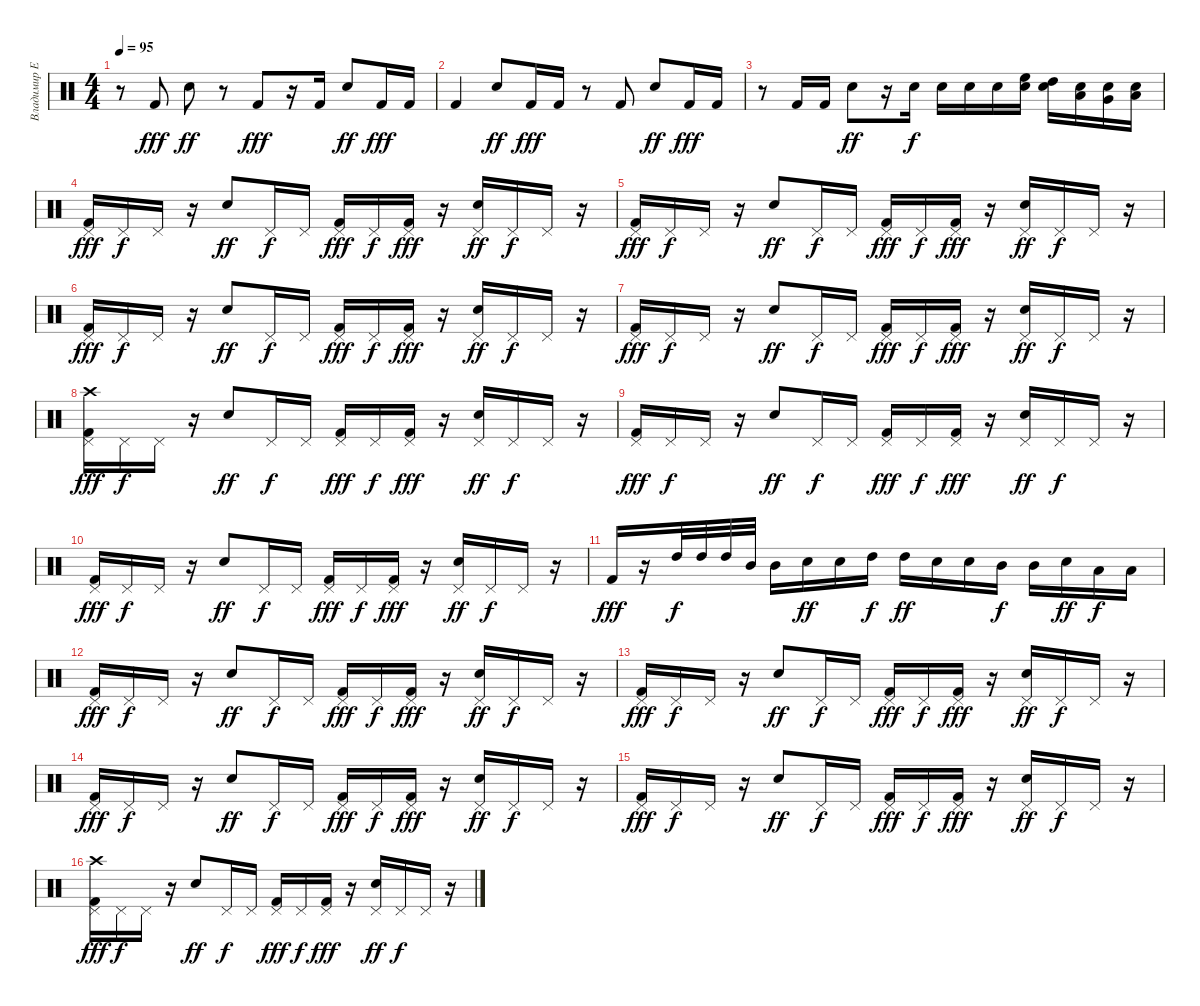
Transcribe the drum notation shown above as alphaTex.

\track ("Владимир Ермаков" "Владимир Е") {instrument percussion}
\staff {score}
\articulation defaults
\ts (4 4)
\tempo 95
\clef neutral
\ks c
r.8{dy ff} "Kick (hit) 2".8{dy fff} "Electric Snare (hit)".8{dy ff} r.8 "Kick (hit) 2".8{dy fff} r.16 "Kick (hit) 2".16 "Electric Snare (hit)".8{dy ff} "Kick (hit) 2".16{dy fff} "Kick (hit) 2".16 |
"Kick (hit) 2".4 "Electric Snare (hit)".8{dy ff} "Kick (hit) 2".16{dy fff} "Kick (hit) 2".16 r.8 "Kick (hit) 2".8 "Electric Snare (hit)".8{dy ff} "Kick (hit) 2".16{dy fff} "Kick (hit) 2".16 |
r.8 "Kick (hit) 2".16 "Kick (hit) 2".16 "Electric Snare (hit)".8{dy ff} r.16 "Electric Snare (hit)".16{dy f} "Electric Snare (hit)".16 "Electric Snare (hit)".16 "Electric Snare (hit)".16 ("High Floor Tom (hit)" "Electric Snare (hit)").16 ("High Tom (hit)" "Electric Snare (hit)").16 ("Low Tom (hit)" "Electric Snare (hit)").16 ("Very Low Tom (hit)" "Electric Snare (hit)").16 ("Low Floor Tom (hit)" "Electric Snare (hit)").16 |
("Kick (hit) 2" "Pedal Hi-Hat (hit)").16{dy fff} "Pedal Hi-Hat (hit)".16{dy f} "Pedal Hi-Hat (hit)".16 r.16 "Electric Snare (hit)".8{dy ff} "Pedal Hi-Hat (hit)".16{dy f} "Pedal Hi-Hat (hit)".16 ("Kick (hit) 2" "Pedal Hi-Hat (hit)").16{dy fff} "Pedal Hi-Hat (hit)".16{dy f} ("Kick (hit) 2" "Pedal Hi-Hat (hit)").16{dy fff} r.16 ("Electric Snare (hit)" "Pedal Hi-Hat (hit)").16{dy ff} "Pedal Hi-Hat (hit)".16{dy f} "Pedal Hi-Hat (hit)".16 r.16 |
("Kick (hit) 2" "Pedal Hi-Hat (hit)").16{dy fff} "Pedal Hi-Hat (hit)".16{dy f} "Pedal Hi-Hat (hit)".16 r.16 "Electric Snare (hit)".8{dy ff} "Pedal Hi-Hat (hit)".16{dy f} "Pedal Hi-Hat (hit)".16 ("Kick (hit) 2" "Pedal Hi-Hat (hit)").16{dy fff} "Pedal Hi-Hat (hit)".16{dy f} ("Kick (hit) 2" "Pedal Hi-Hat (hit)").16{dy fff} r.16 ("Electric Snare (hit)" "Pedal Hi-Hat (hit)").16{dy ff} "Pedal Hi-Hat (hit)".16{dy f} "Pedal Hi-Hat (hit)".16 r.16 |
("Kick (hit) 2" "Pedal Hi-Hat (hit)").16{dy fff} "Pedal Hi-Hat (hit)".16{dy f} "Pedal Hi-Hat (hit)".16 r.16 "Electric Snare (hit)".8{dy ff} "Pedal Hi-Hat (hit)".16{dy f} "Pedal Hi-Hat (hit)".16 ("Kick (hit) 2" "Pedal Hi-Hat (hit)").16{dy fff} "Pedal Hi-Hat (hit)".16{dy f} ("Kick (hit) 2" "Pedal Hi-Hat (hit)").16{dy fff} r.16 ("Electric Snare (hit)" "Pedal Hi-Hat (hit)").16{dy ff} "Pedal Hi-Hat (hit)".16{dy f} "Pedal Hi-Hat (hit)".16 r.16 |
("Kick (hit) 2" "Pedal Hi-Hat (hit)").16{dy fff} "Pedal Hi-Hat (hit)".16{dy f} "Pedal Hi-Hat (hit)".16 r.16 "Electric Snare (hit)".8{dy ff} "Pedal Hi-Hat (hit)".16{dy f} "Pedal Hi-Hat (hit)".16 ("Kick (hit) 2" "Pedal Hi-Hat (hit)").16{dy fff} "Pedal Hi-Hat (hit)".16{dy f} ("Kick (hit) 2" "Pedal Hi-Hat (hit)").16{dy fff} r.16 ("Electric Snare (hit)" "Pedal Hi-Hat (hit)").16{dy ff} "Pedal Hi-Hat (hit)".16{dy f} "Pedal Hi-Hat (hit)".16 r.16 |
("Crash high (hit)" "Kick (hit) 2" "Pedal Hi-Hat (hit)").16{dy fff} "Pedal Hi-Hat (hit)".16{dy f} "Pedal Hi-Hat (hit)".16 r.16 "Electric Snare (hit)".8{dy ff} "Pedal Hi-Hat (hit)".16{dy f} "Pedal Hi-Hat (hit)".16 ("Kick (hit) 2" "Pedal Hi-Hat (hit)").16{dy fff} "Pedal Hi-Hat (hit)".16{dy f} ("Kick (hit) 2" "Pedal Hi-Hat (hit)").16{dy fff} r.16 ("Electric Snare (hit)" "Pedal Hi-Hat (hit)").16{dy ff} "Pedal Hi-Hat (hit)".16{dy f} "Pedal Hi-Hat (hit)".16 r.16 |
("Kick (hit) 2" "Pedal Hi-Hat (hit)").16{dy fff} "Pedal Hi-Hat (hit)".16{dy f} "Pedal Hi-Hat (hit)".16 r.16 "Electric Snare (hit)".8{dy ff} "Pedal Hi-Hat (hit)".16{dy f} "Pedal Hi-Hat (hit)".16 ("Kick (hit) 2" "Pedal Hi-Hat (hit)").16{dy fff} "Pedal Hi-Hat (hit)".16{dy f} ("Kick (hit) 2" "Pedal Hi-Hat (hit)").16{dy fff} r.16 ("Electric Snare (hit)" "Pedal Hi-Hat (hit)").16{dy ff} "Pedal Hi-Hat (hit)".16{dy f} "Pedal Hi-Hat (hit)".16 r.16 |
("Kick (hit) 2" "Pedal Hi-Hat (hit)").16{dy fff} "Pedal Hi-Hat (hit)".16{dy f} "Pedal Hi-Hat (hit)".16 r.16 "Electric Snare (hit)".8{dy ff} "Pedal Hi-Hat (hit)".16{dy f} "Pedal Hi-Hat (hit)".16 ("Kick (hit) 2" "Pedal Hi-Hat (hit)").16{dy fff} "Pedal Hi-Hat (hit)".16{dy f} ("Kick (hit) 2" "Pedal Hi-Hat (hit)").16{dy fff} r.16 ("Electric Snare (hit)" "Pedal Hi-Hat (hit)").16{dy ff} "Pedal Hi-Hat (hit)".16{dy f} "Pedal Hi-Hat (hit)".16 r.16 |
"Kick (hit) 2".16{dy fff} r.16 "High Tom (hit)".32{dy f} "High Tom (hit)".32 "High Tom (hit)".32 "Mid Tom (hit)".32 "Mid Tom (hit)".16 "Electric Snare (hit)".16{dy ff} "Electric Snare (hit)".16 "High Tom (hit)".16{dy f} "High Tom (hit)".16{dy ff} "Electric Snare (hit)".16 "Electric Snare (hit)".16 "Mid Tom (hit)".16{dy f} "Mid Tom (hit)".16 "Electric Snare (hit)".16{dy ff} "Low Tom (hit)".16{dy f} "Low Tom (hit)".16 |
("Kick (hit) 2" "Pedal Hi-Hat (hit)").16{dy fff} "Pedal Hi-Hat (hit)".16{dy f} "Pedal Hi-Hat (hit)".16 r.16 "Electric Snare (hit)".8{dy ff} "Pedal Hi-Hat (hit)".16{dy f} "Pedal Hi-Hat (hit)".16 ("Kick (hit) 2" "Pedal Hi-Hat (hit)").16{dy fff} "Pedal Hi-Hat (hit)".16{dy f} ("Kick (hit) 2" "Pedal Hi-Hat (hit)").16{dy fff} r.16 ("Electric Snare (hit)" "Pedal Hi-Hat (hit)").16{dy ff} "Pedal Hi-Hat (hit)".16{dy f} "Pedal Hi-Hat (hit)".16 r.16 |
("Kick (hit) 2" "Pedal Hi-Hat (hit)").16{dy fff} "Pedal Hi-Hat (hit)".16{dy f} "Pedal Hi-Hat (hit)".16 r.16 "Electric Snare (hit)".8{dy ff} "Pedal Hi-Hat (hit)".16{dy f} "Pedal Hi-Hat (hit)".16 ("Kick (hit) 2" "Pedal Hi-Hat (hit)").16{dy fff} "Pedal Hi-Hat (hit)".16{dy f} ("Kick (hit) 2" "Pedal Hi-Hat (hit)").16{dy fff} r.16 ("Electric Snare (hit)" "Pedal Hi-Hat (hit)").16{dy ff} "Pedal Hi-Hat (hit)".16{dy f} "Pedal Hi-Hat (hit)".16 r.16 |
("Kick (hit) 2" "Pedal Hi-Hat (hit)").16{dy fff} "Pedal Hi-Hat (hit)".16{dy f} "Pedal Hi-Hat (hit)".16 r.16 "Electric Snare (hit)".8{dy ff} "Pedal Hi-Hat (hit)".16{dy f} "Pedal Hi-Hat (hit)".16 ("Kick (hit) 2" "Pedal Hi-Hat (hit)").16{dy fff} "Pedal Hi-Hat (hit)".16{dy f} ("Kick (hit) 2" "Pedal Hi-Hat (hit)").16{dy fff} r.16 ("Electric Snare (hit)" "Pedal Hi-Hat (hit)").16{dy ff} "Pedal Hi-Hat (hit)".16{dy f} "Pedal Hi-Hat (hit)".16 r.16 |
("Kick (hit) 2" "Pedal Hi-Hat (hit)").16{dy fff} "Pedal Hi-Hat (hit)".16{dy f} "Pedal Hi-Hat (hit)".16 r.16 "Electric Snare (hit)".8{dy ff} "Pedal Hi-Hat (hit)".16{dy f} "Pedal Hi-Hat (hit)".16 ("Kick (hit) 2" "Pedal Hi-Hat (hit)").16{dy fff} "Pedal Hi-Hat (hit)".16{dy f} ("Kick (hit) 2" "Pedal Hi-Hat (hit)").16{dy fff} r.16 ("Electric Snare (hit)" "Pedal Hi-Hat (hit)").16{dy ff} "Pedal Hi-Hat (hit)".16{dy f} "Pedal Hi-Hat (hit)".16 r.16 |
("Crash high (hit)" "Kick (hit) 2" "Pedal Hi-Hat (hit)").16{dy fff} "Pedal Hi-Hat (hit)".16{dy f} "Pedal Hi-Hat (hit)".16 r.16 "Electric Snare (hit)".8{dy ff} "Pedal Hi-Hat (hit)".16{dy f} "Pedal Hi-Hat (hit)".16 ("Kick (hit) 2" "Pedal Hi-Hat (hit)").16{dy fff} "Pedal Hi-Hat (hit)".16{dy f} ("Kick (hit) 2" "Pedal Hi-Hat (hit)").16{dy fff} r.16 ("Electric Snare (hit)" "Pedal Hi-Hat (hit)").16{dy ff} "Pedal Hi-Hat (hit)".16{dy f} "Pedal Hi-Hat (hit)".16 r.16
